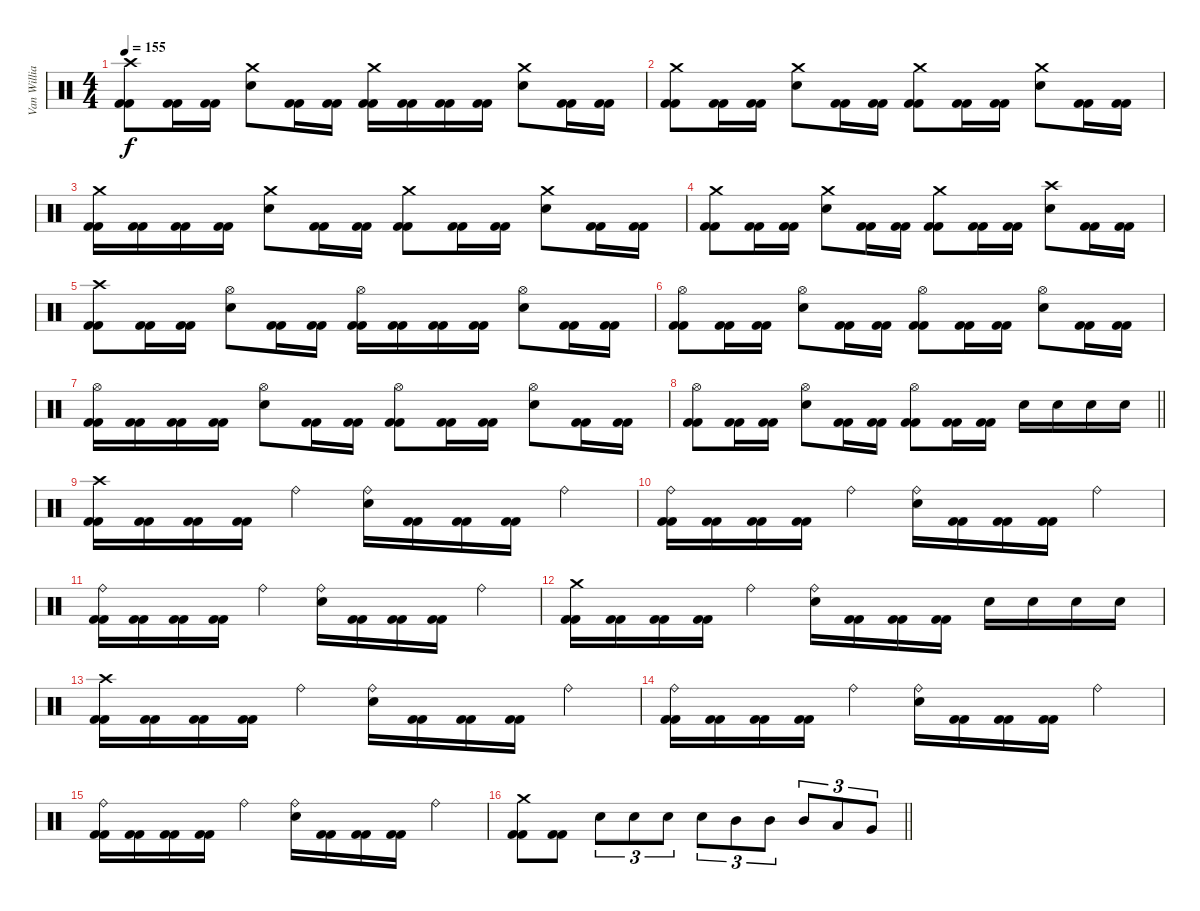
\track ("Van Williams" "Van Willia") {instrument percussion}
\staff {score}
\articulation defaults
\ts (4 4)
\tempo 155
\clef neutral
\ks c
("Crash high (hit)" "Kick (hit) 2" "Kick (hit) 2").8{dy f} ("Kick (hit) 2" "Kick (hit) 2").16 ("Kick (hit) 2" "Kick (hit) 2").16 ("Crash medium (hit)" "Electric Snare (hit)").8 ("Kick (hit) 2" "Kick (hit) 2").16 ("Kick (hit) 2" "Kick (hit) 2").16 ("Crash medium (hit)" "Kick (hit) 2" "Kick (hit) 2").16 ("Kick (hit) 2" "Kick (hit) 2").16 ("Kick (hit) 2" "Kick (hit) 2").16 ("Kick (hit) 2" "Kick (hit) 2").16 ("Crash medium (hit)" "Electric Snare (hit)").8 ("Kick (hit) 2" "Kick (hit) 2").16 ("Kick (hit) 2" "Kick (hit) 2").16 |
("Crash medium (hit)" "Kick (hit) 2" "Kick (hit) 2").8 ("Kick (hit) 2" "Kick (hit) 2").16 ("Kick (hit) 2" "Kick (hit) 2").16 ("Crash medium (hit)" "Electric Snare (hit)").8 ("Kick (hit) 2" "Kick (hit) 2").16 ("Kick (hit) 2" "Kick (hit) 2").16 ("Crash medium (hit)" "Kick (hit) 2" "Kick (hit) 2").8 ("Kick (hit) 2" "Kick (hit) 2").16 ("Kick (hit) 2" "Kick (hit) 2").16 ("Crash medium (hit)" "Electric Snare (hit)").8 ("Kick (hit) 2" "Kick (hit) 2").16 ("Kick (hit) 2" "Kick (hit) 2").16 |
("Crash medium (hit)" "Kick (hit) 2" "Kick (hit) 2").16 ("Kick (hit) 2" "Kick (hit) 2").16 ("Kick (hit) 2" "Kick (hit) 2").16 ("Kick (hit) 2" "Kick (hit) 2").16 ("Crash medium (hit)" "Electric Snare (hit)").8 ("Kick (hit) 2" "Kick (hit) 2").16 ("Kick (hit) 2" "Kick (hit) 2").16 ("Crash medium (hit)" "Kick (hit) 2" "Kick (hit) 2").8 ("Kick (hit) 2" "Kick (hit) 2").16 ("Kick (hit) 2" "Kick (hit) 2").16 ("Crash medium (hit)" "Electric Snare (hit)").8 ("Kick (hit) 2" "Kick (hit) 2").16 ("Kick (hit) 2" "Kick (hit) 2").16 |
("Crash medium (hit)" "Kick (hit) 2" "Kick (hit) 2").8 ("Kick (hit) 2" "Kick (hit) 2").16 ("Kick (hit) 2" "Kick (hit) 2").16 ("Crash medium (hit)" "Electric Snare (hit)").8 ("Kick (hit) 2" "Kick (hit) 2").16 ("Kick (hit) 2" "Kick (hit) 2").16 ("Crash medium (hit)" "Kick (hit) 2" "Kick (hit) 2").8 ("Kick (hit) 2" "Kick (hit) 2").16 ("Kick (hit) 2" "Kick (hit) 2").16 ("Crash high (hit)" "Electric Snare (hit)").8 ("Kick (hit) 2" "Kick (hit) 2").16 ("Kick (hit) 2" "Kick (hit) 2").16 |
("Crash high (hit)" "Kick (hit) 2" "Kick (hit) 2").8 ("Kick (hit) 2" "Kick (hit) 2").16 ("Kick (hit) 2" "Kick (hit) 2").16 ("Hi-Hat (open)" "Electric Snare (hit)").8 ("Kick (hit) 2" "Kick (hit) 2").16 ("Kick (hit) 2" "Kick (hit) 2").16 ("Hi-Hat (open)" "Kick (hit) 2" "Kick (hit) 2").16 ("Kick (hit) 2" "Kick (hit) 2").16 ("Kick (hit) 2" "Kick (hit) 2").16 ("Kick (hit) 2" "Kick (hit) 2").16 ("Hi-Hat (open)" "Electric Snare (hit)").8 ("Kick (hit) 2" "Kick (hit) 2").16 ("Kick (hit) 2" "Kick (hit) 2").16 |
("Hi-Hat (open)" "Kick (hit) 2" "Kick (hit) 2").8 ("Kick (hit) 2" "Kick (hit) 2").16 ("Kick (hit) 2" "Kick (hit) 2").16 ("Hi-Hat (open)" "Electric Snare (hit)").8 ("Kick (hit) 2" "Kick (hit) 2").16 ("Kick (hit) 2" "Kick (hit) 2").16 ("Hi-Hat (open)" "Kick (hit) 2" "Kick (hit) 2").8 ("Kick (hit) 2" "Kick (hit) 2").16 ("Kick (hit) 2" "Kick (hit) 2").16 ("Hi-Hat (open)" "Electric Snare (hit)").8 ("Kick (hit) 2" "Kick (hit) 2").16 ("Kick (hit) 2" "Kick (hit) 2").16 |
("Hi-Hat (open)" "Kick (hit) 2" "Kick (hit) 2").16 ("Kick (hit) 2" "Kick (hit) 2").16 ("Kick (hit) 2" "Kick (hit) 2").16 ("Kick (hit) 2" "Kick (hit) 2").16 ("Hi-Hat (open)" "Electric Snare (hit)").8 ("Kick (hit) 2" "Kick (hit) 2").16 ("Kick (hit) 2" "Kick (hit) 2").16 ("Hi-Hat (open)" "Kick (hit) 2" "Kick (hit) 2").8 ("Kick (hit) 2" "Kick (hit) 2").16 ("Kick (hit) 2" "Kick (hit) 2").16 ("Hi-Hat (open)" "Electric Snare (hit)").8 ("Kick (hit) 2" "Kick (hit) 2").16 ("Kick (hit) 2" "Kick (hit) 2").16 |
\barLineRight lightlight
("Hi-Hat (open)" "Kick (hit) 2" "Kick (hit) 2").8 ("Kick (hit) 2" "Kick (hit) 2").16 ("Kick (hit) 2" "Kick (hit) 2").16 ("Hi-Hat (open)" "Electric Snare (hit)").8 ("Kick (hit) 2" "Kick (hit) 2").16 ("Kick (hit) 2" "Kick (hit) 2").16 ("Hi-Hat (open)" "Kick (hit) 2" "Kick (hit) 2").8 ("Kick (hit) 2" "Kick (hit) 2").16 ("Kick (hit) 2" "Kick (hit) 2").16 "Electric Snare (hit)".16 "Electric Snare (hit)".16 "Electric Snare (hit)".16 "Electric Snare (hit)".16 |
("Crash high (hit)" "Kick (hit) 2" "Kick (hit) 2").16 ("Kick (hit) 2" "Kick (hit) 2").16 ("Kick (hit) 2" "Kick (hit) 2").16 ("Kick (hit) 2" "Kick (hit) 2").16 "Ride (bell)".4 ("Ride (bell)" "Electric Snare (hit)").16 ("Kick (hit) 2" "Kick (hit) 2").16 ("Kick (hit) 2" "Kick (hit) 2").16 ("Kick (hit) 2" "Kick (hit) 2").16 "Ride (bell)".4 |
("Ride (bell)" "Kick (hit) 2" "Kick (hit) 2").16 ("Kick (hit) 2" "Kick (hit) 2").16 ("Kick (hit) 2" "Kick (hit) 2").16 ("Kick (hit) 2" "Kick (hit) 2").16 "Ride (bell)".4 ("Ride (bell)" "Electric Snare (hit)").16 ("Kick (hit) 2" "Kick (hit) 2").16 ("Kick (hit) 2" "Kick (hit) 2").16 ("Kick (hit) 2" "Kick (hit) 2").16 "Ride (bell)".4 |
("Ride (bell)" "Kick (hit) 2" "Kick (hit) 2").16 ("Kick (hit) 2" "Kick (hit) 2").16 ("Kick (hit) 2" "Kick (hit) 2").16 ("Kick (hit) 2" "Kick (hit) 2").16 "Ride (bell)".4 ("Ride (bell)" "Electric Snare (hit)").16 ("Kick (hit) 2" "Kick (hit) 2").16 ("Kick (hit) 2" "Kick (hit) 2").16 ("Kick (hit) 2" "Kick (hit) 2").16 "Ride (bell)".4 |
("Crash medium (hit)" "Kick (hit) 2" "Kick (hit) 2").16 ("Kick (hit) 2" "Kick (hit) 2").16 ("Kick (hit) 2" "Kick (hit) 2").16 ("Kick (hit) 2" "Kick (hit) 2").16 "Ride (bell)".4 ("Ride (bell)" "Electric Snare (hit)").16 ("Kick (hit) 2" "Kick (hit) 2").16 ("Kick (hit) 2" "Kick (hit) 2").16 ("Kick (hit) 2" "Kick (hit) 2").16 "Electric Snare (hit)".16 "Electric Snare (hit)".16 "Electric Snare (hit)".16 "Electric Snare (hit)".16 |
("Crash high (hit)" "Kick (hit) 2" "Kick (hit) 2").16 ("Kick (hit) 2" "Kick (hit) 2").16 ("Kick (hit) 2" "Kick (hit) 2").16 ("Kick (hit) 2" "Kick (hit) 2").16 "Ride (bell)".4 ("Ride (bell)" "Electric Snare (hit)").16 ("Kick (hit) 2" "Kick (hit) 2").16 ("Kick (hit) 2" "Kick (hit) 2").16 ("Kick (hit) 2" "Kick (hit) 2").16 "Ride (bell)".4 |
("Ride (bell)" "Kick (hit) 2" "Kick (hit) 2").16 ("Kick (hit) 2" "Kick (hit) 2").16 ("Kick (hit) 2" "Kick (hit) 2").16 ("Kick (hit) 2" "Kick (hit) 2").16 "Ride (bell)".4 ("Ride (bell)" "Electric Snare (hit)").16 ("Kick (hit) 2" "Kick (hit) 2").16 ("Kick (hit) 2" "Kick (hit) 2").16 ("Kick (hit) 2" "Kick (hit) 2").16 "Ride (bell)".4 |
("Ride (bell)" "Kick (hit) 2" "Kick (hit) 2").16 ("Kick (hit) 2" "Kick (hit) 2").16 ("Kick (hit) 2" "Kick (hit) 2").16 ("Kick (hit) 2" "Kick (hit) 2").16 "Ride (bell)".4 ("Ride (bell)" "Electric Snare (hit)").16 ("Kick (hit) 2" "Kick (hit) 2").16 ("Kick (hit) 2" "Kick (hit) 2").16 ("Kick (hit) 2" "Kick (hit) 2").16 "Ride (bell)".4 |
\barLineRight lightlight
("Crash medium (hit)" "Kick (hit) 2" "Kick (hit) 2").8 ("Kick (hit) 2" "Kick (hit) 2").8 "Electric Snare (hit)".8{tu (3 2)} "Electric Snare (hit)".8{tu (3 2)} "Electric Snare (hit)".8{tu (3 2)} "Electric Snare (hit)".8{tu (3 2)} "Mid Tom (hit)".8{tu (3 2)} "Mid Tom (hit)".8{tu (3 2)} "Mid Tom (hit)".8{tu (3 2)} "Low Tom (hit)".8{tu (3 2)} "Very Low Tom (hit)".8{tu (3 2)}
